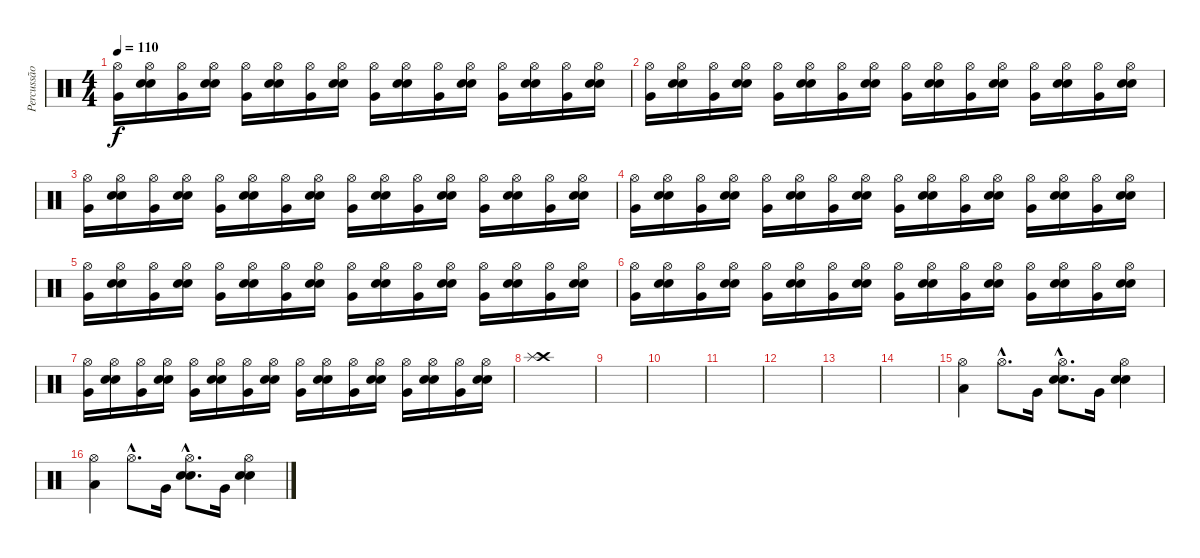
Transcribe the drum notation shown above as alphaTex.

\track ("Percussão" "Percussão") {instrument percussion}
\staff {score}
\articulation defaults
\ts (4 4)
\tempo 110
\clef neutral
\ks c
("Hi-Hat (open)" "Very Low Tom (hit)").16{dy f} ("Hi-Hat (open)" "Electric Snare (hit)" "Snare (hit) 2").16 ("Hi-Hat (open)" "Very Low Tom (hit)").16 ("Hi-Hat (open)" "Electric Snare (hit)" "Snare (hit) 2").16 ("Hi-Hat (open)" "Very Low Tom (hit)").16 ("Hi-Hat (open)" "Electric Snare (hit)" "Snare (hit) 2").16 ("Hi-Hat (open)" "Very Low Tom (hit)").16 ("Hi-Hat (open)" "Electric Snare (hit)" "Snare (hit) 2").16 ("Hi-Hat (open)" "Very Low Tom (hit)").16 ("Hi-Hat (open)" "Electric Snare (hit)" "Snare (hit) 2").16 ("Hi-Hat (open)" "Very Low Tom (hit)").16 ("Hi-Hat (open)" "Electric Snare (hit)" "Snare (hit) 2").16 ("Hi-Hat (open)" "Very Low Tom (hit)").16 ("Hi-Hat (open)" "Electric Snare (hit)" "Snare (hit) 2").16 ("Hi-Hat (open)" "Very Low Tom (hit)").16 ("Hi-Hat (open)" "Electric Snare (hit)" "Snare (hit) 2").16 |
("Hi-Hat (open)" "Very Low Tom (hit)").16 ("Hi-Hat (open)" "Electric Snare (hit)" "Snare (hit) 2").16 ("Hi-Hat (open)" "Very Low Tom (hit)").16 ("Hi-Hat (open)" "Electric Snare (hit)" "Snare (hit) 2").16 ("Hi-Hat (open)" "Very Low Tom (hit)").16 ("Hi-Hat (open)" "Electric Snare (hit)" "Snare (hit) 2").16 ("Hi-Hat (open)" "Very Low Tom (hit)").16 ("Hi-Hat (open)" "Electric Snare (hit)" "Snare (hit) 2").16 ("Hi-Hat (open)" "Very Low Tom (hit)").16 ("Hi-Hat (open)" "Electric Snare (hit)" "Snare (hit) 2").16 ("Hi-Hat (open)" "Very Low Tom (hit)").16 ("Hi-Hat (open)" "Electric Snare (hit)" "Snare (hit) 2").16 ("Hi-Hat (open)" "Very Low Tom (hit)").16 ("Hi-Hat (open)" "Electric Snare (hit)" "Snare (hit) 2").16 ("Hi-Hat (open)" "Very Low Tom (hit)").16 ("Hi-Hat (open)" "Electric Snare (hit)" "Snare (hit) 2").16 |
("Hi-Hat (open)" "Very Low Tom (hit)").16 ("Hi-Hat (open)" "Electric Snare (hit)" "Snare (hit) 2").16 ("Hi-Hat (open)" "Very Low Tom (hit)").16 ("Hi-Hat (open)" "Electric Snare (hit)" "Snare (hit) 2").16 ("Hi-Hat (open)" "Very Low Tom (hit)").16 ("Hi-Hat (open)" "Electric Snare (hit)" "Snare (hit) 2").16 ("Hi-Hat (open)" "Very Low Tom (hit)").16 ("Hi-Hat (open)" "Electric Snare (hit)" "Snare (hit) 2").16 ("Hi-Hat (open)" "Very Low Tom (hit)").16 ("Hi-Hat (open)" "Electric Snare (hit)" "Snare (hit) 2").16 ("Hi-Hat (open)" "Very Low Tom (hit)").16 ("Hi-Hat (open)" "Electric Snare (hit)" "Snare (hit) 2").16 ("Hi-Hat (open)" "Very Low Tom (hit)").16 ("Hi-Hat (open)" "Electric Snare (hit)" "Snare (hit) 2").16 ("Hi-Hat (open)" "Very Low Tom (hit)").16 ("Hi-Hat (open)" "Electric Snare (hit)" "Snare (hit) 2").16 |
("Hi-Hat (open)" "Very Low Tom (hit)").16 ("Hi-Hat (open)" "Electric Snare (hit)" "Snare (hit) 2").16 ("Hi-Hat (open)" "Very Low Tom (hit)").16 ("Hi-Hat (open)" "Electric Snare (hit)" "Snare (hit) 2").16 ("Hi-Hat (open)" "Very Low Tom (hit)").16 ("Hi-Hat (open)" "Electric Snare (hit)" "Snare (hit) 2").16 ("Hi-Hat (open)" "Very Low Tom (hit)").16 ("Hi-Hat (open)" "Electric Snare (hit)" "Snare (hit) 2").16 ("Hi-Hat (open)" "Very Low Tom (hit)").16 ("Hi-Hat (open)" "Electric Snare (hit)" "Snare (hit) 2").16 ("Hi-Hat (open)" "Very Low Tom (hit)").16 ("Hi-Hat (open)" "Electric Snare (hit)" "Snare (hit) 2").16 ("Hi-Hat (open)" "Very Low Tom (hit)").16 ("Hi-Hat (open)" "Electric Snare (hit)" "Snare (hit) 2").16 ("Hi-Hat (open)" "Very Low Tom (hit)").16 ("Hi-Hat (open)" "Electric Snare (hit)" "Snare (hit) 2").16 |
("Hi-Hat (open)" "Very Low Tom (hit)").16 ("Hi-Hat (open)" "Electric Snare (hit)" "Snare (hit) 2").16 ("Hi-Hat (open)" "Very Low Tom (hit)").16 ("Hi-Hat (open)" "Electric Snare (hit)" "Snare (hit) 2").16 ("Hi-Hat (open)" "Very Low Tom (hit)").16 ("Hi-Hat (open)" "Electric Snare (hit)" "Snare (hit) 2").16 ("Hi-Hat (open)" "Very Low Tom (hit)").16 ("Hi-Hat (open)" "Electric Snare (hit)" "Snare (hit) 2").16 ("Hi-Hat (open)" "Very Low Tom (hit)").16 ("Hi-Hat (open)" "Electric Snare (hit)" "Snare (hit) 2").16 ("Hi-Hat (open)" "Very Low Tom (hit)").16 ("Hi-Hat (open)" "Electric Snare (hit)" "Snare (hit) 2").16 ("Hi-Hat (open)" "Very Low Tom (hit)").16 ("Hi-Hat (open)" "Electric Snare (hit)" "Snare (hit) 2").16 ("Hi-Hat (open)" "Very Low Tom (hit)").16 ("Hi-Hat (open)" "Electric Snare (hit)" "Snare (hit) 2").16 |
("Hi-Hat (open)" "Very Low Tom (hit)").16 ("Hi-Hat (open)" "Electric Snare (hit)" "Snare (hit) 2").16 ("Hi-Hat (open)" "Very Low Tom (hit)").16 ("Hi-Hat (open)" "Electric Snare (hit)" "Snare (hit) 2").16 ("Hi-Hat (open)" "Very Low Tom (hit)").16 ("Hi-Hat (open)" "Electric Snare (hit)" "Snare (hit) 2").16 ("Hi-Hat (open)" "Very Low Tom (hit)").16 ("Hi-Hat (open)" "Electric Snare (hit)" "Snare (hit) 2").16 ("Hi-Hat (open)" "Very Low Tom (hit)").16 ("Hi-Hat (open)" "Electric Snare (hit)" "Snare (hit) 2").16 ("Hi-Hat (open)" "Very Low Tom (hit)").16 ("Hi-Hat (open)" "Electric Snare (hit)" "Snare (hit) 2").16 ("Hi-Hat (open)" "Very Low Tom (hit)").16 ("Hi-Hat (open)" "Electric Snare (hit)" "Snare (hit) 2").16 ("Hi-Hat (open)" "Very Low Tom (hit)").16 ("Hi-Hat (open)" "Electric Snare (hit)" "Snare (hit) 2").16 |
("Hi-Hat (open)" "Very Low Tom (hit)").16 ("Hi-Hat (open)" "Electric Snare (hit)" "Snare (hit) 2").16 ("Hi-Hat (open)" "Very Low Tom (hit)").16 ("Hi-Hat (open)" "Electric Snare (hit)" "Snare (hit) 2").16 ("Hi-Hat (open)" "Very Low Tom (hit)").16 ("Hi-Hat (open)" "Electric Snare (hit)" "Snare (hit) 2").16 ("Hi-Hat (open)" "Very Low Tom (hit)").16 ("Hi-Hat (open)" "Electric Snare (hit)" "Snare (hit) 2").16 ("Hi-Hat (open)" "Very Low Tom (hit)").16 ("Hi-Hat (open)" "Electric Snare (hit)" "Snare (hit) 2").16 ("Hi-Hat (open)" "Very Low Tom (hit)").16 ("Hi-Hat (open)" "Electric Snare (hit)" "Snare (hit) 2").16 ("Hi-Hat (open)" "Very Low Tom (hit)").16 ("Hi-Hat (open)" "Electric Snare (hit)" "Snare (hit) 2").16 ("Hi-Hat (open)" "Very Low Tom (hit)").16 ("Hi-Hat (open)" "Electric Snare (hit)" "Snare (hit) 2").16 |
("Crash high (hit)" "Splash (hit)").1 |
|
|
|
|
|
|
("Hi-Hat (open)" "Low Floor Tom (hit)").4 "Hi-Hat (open)"{hac}.8{d} "Very Low Tom (hit)".16 ("Hi-Hat (open)"{hac} "Electric Snare (hit)"{hac} "Snare (hit) 2"{hac}).8{d} "Very Low Tom (hit)".16 ("Hi-Hat (open)" "Electric Snare (hit)" "Snare (hit) 2").4 |
("Hi-Hat (open)" "Low Floor Tom (hit)").4 "Hi-Hat (open)"{hac}.8{d} "Very Low Tom (hit)".16 ("Hi-Hat (open)"{hac} "Electric Snare (hit)"{hac} "Snare (hit) 2"{hac}).8{d} "Very Low Tom (hit)".16 ("Hi-Hat (open)" "Electric Snare (hit)" "Snare (hit) 2").4
